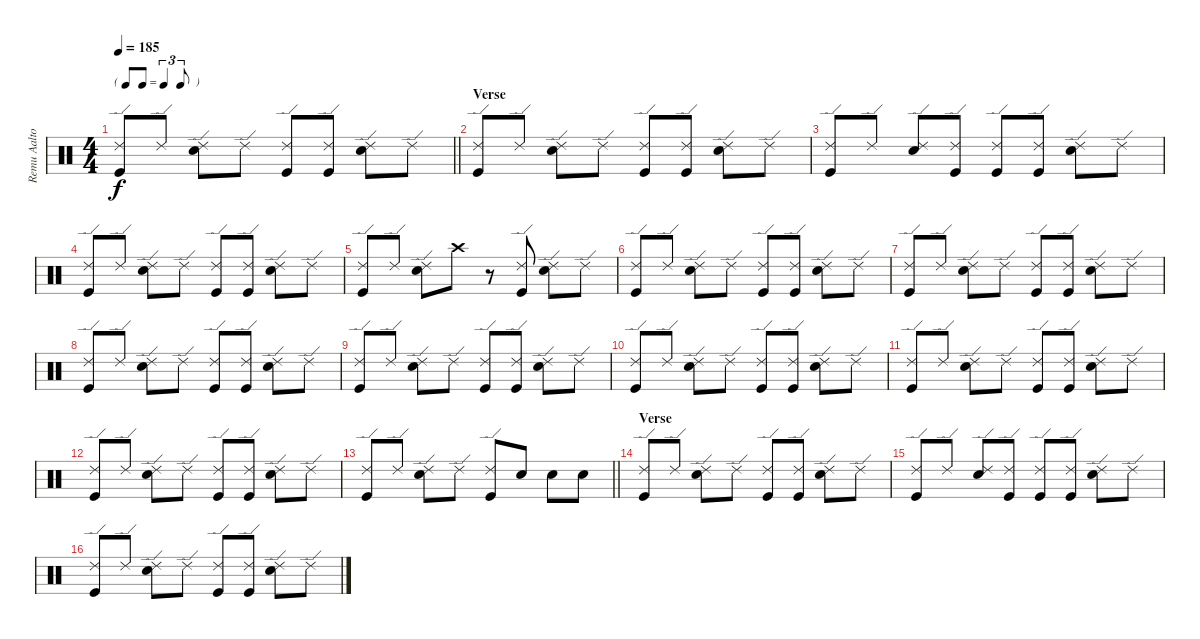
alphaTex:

\track ("Remu Aaltonen" "Remu Aalto") {instrument percussion}
\staff {score}
\articulation defaults
\ts (4 4)
\tf triplet8th
\tempo 185
\clef neutral
\barLineRight lightlight
\ks c
("Ride (edge) 2" "Kick (hit)").8{dy f} "Ride (edge) 2".8 ("Ride (edge) 2" "Snare (hit) 2").8 "Ride (edge) 2".8 ("Ride (edge) 2" "Kick (hit)").8 ("Ride (edge) 2" "Kick (hit)").8 ("Ride (edge) 2" "Snare (hit) 2").8 "Ride (edge) 2".8 |
\section ("" "Verse")
("Ride (edge) 2" "Kick (hit)").8 "Ride (edge) 2".8 ("Ride (edge) 2" "Snare (hit) 2").8 "Ride (edge) 2".8 ("Ride (edge) 2" "Kick (hit)").8 ("Ride (edge) 2" "Kick (hit)").8 ("Ride (edge) 2" "Snare (hit) 2").8 "Ride (edge) 2".8 |
("Ride (edge) 2" "Kick (hit)").8 "Ride (edge) 2".8 ("Ride (edge) 2" "Snare (hit) 2").8 ("Ride (edge) 2" "Kick (hit)").8 ("Ride (edge) 2" "Kick (hit)").8 ("Ride (edge) 2" "Kick (hit)").8 ("Ride (edge) 2" "Snare (hit) 2").8 "Ride (edge) 2".8 |
("Ride (edge) 2" "Kick (hit)").8 "Ride (edge) 2".8 ("Ride (edge) 2" "Snare (hit) 2").8 "Ride (edge) 2".8 ("Ride (edge) 2" "Kick (hit)").8 ("Ride (edge) 2" "Kick (hit)").8 ("Ride (edge) 2" "Snare (hit) 2").8 "Ride (edge) 2".8 |
("Ride (edge) 2" "Kick (hit)").8 "Ride (edge) 2".8 ("Ride (edge) 2" "Snare (hit) 2").8 "Crash high (hit)".8 r.8 ("Ride (edge) 2" "Kick (hit)").8 ("Ride (edge) 2" "Snare (hit) 2").8 "Ride (edge) 2".8 |
("Ride (edge) 2" "Kick (hit)").8 "Ride (edge) 2".8 ("Ride (edge) 2" "Snare (hit) 2").8 "Ride (edge) 2".8 ("Ride (edge) 2" "Kick (hit)").8 ("Ride (edge) 2" "Kick (hit)").8 ("Ride (edge) 2" "Snare (hit) 2").8 "Ride (edge) 2".8 |
("Ride (edge) 2" "Kick (hit)").8 "Ride (edge) 2".8 ("Ride (edge) 2" "Snare (hit) 2").8 "Ride (edge) 2".8 ("Ride (edge) 2" "Kick (hit)").8 ("Ride (edge) 2" "Kick (hit)").8 ("Ride (edge) 2" "Snare (hit) 2").8 "Ride (edge) 2".8 |
("Ride (edge) 2" "Kick (hit)").8 "Ride (edge) 2".8 ("Ride (edge) 2" "Snare (hit) 2").8 "Ride (edge) 2".8 ("Ride (edge) 2" "Kick (hit)").8 ("Ride (edge) 2" "Kick (hit)").8 ("Ride (edge) 2" "Snare (hit) 2").8 "Ride (edge) 2".8 |
("Ride (edge) 2" "Kick (hit)").8 "Ride (edge) 2".8 ("Ride (edge) 2" "Snare (hit) 2").8 "Ride (edge) 2".8 ("Ride (edge) 2" "Kick (hit)").8 ("Ride (edge) 2" "Kick (hit)").8 ("Ride (edge) 2" "Snare (hit) 2").8 "Ride (edge) 2".8 |
("Ride (edge) 2" "Kick (hit)").8 "Ride (edge) 2".8 ("Ride (edge) 2" "Snare (hit) 2").8 "Ride (edge) 2".8 ("Ride (edge) 2" "Kick (hit)").8 ("Ride (edge) 2" "Kick (hit)").8 ("Ride (edge) 2" "Snare (hit) 2").8 "Ride (edge) 2".8 |
("Ride (edge) 2" "Kick (hit)").8 "Ride (edge) 2".8 ("Ride (edge) 2" "Snare (hit) 2").8 "Ride (edge) 2".8 ("Ride (edge) 2" "Kick (hit)").8 ("Ride (edge) 2" "Kick (hit)").8 ("Ride (edge) 2" "Snare (hit) 2").8 "Ride (edge) 2".8 |
("Ride (edge) 2" "Kick (hit)").8 "Ride (edge) 2".8 ("Ride (edge) 2" "Snare (hit) 2").8 "Ride (edge) 2".8 ("Ride (edge) 2" "Kick (hit)").8 ("Ride (edge) 2" "Kick (hit)").8 ("Ride (edge) 2" "Snare (hit) 2").8 "Ride (edge) 2".8 |
\barLineRight lightlight
("Ride (edge) 2" "Kick (hit)").8 "Ride (edge) 2".8 ("Ride (edge) 2" "Snare (hit) 2").8 "Ride (edge) 2".8 ("Ride (edge) 2" "Kick (hit)").8 "Snare (hit) 2".8 "Snare (hit) 2".8 "Snare (hit) 2".8 |
\section ("" "Verse")
("Ride (edge) 2" "Kick (hit)").8 "Ride (edge) 2".8 ("Ride (edge) 2" "Snare (hit) 2").8 "Ride (edge) 2".8 ("Ride (edge) 2" "Kick (hit)").8 ("Ride (edge) 2" "Kick (hit)").8 ("Ride (edge) 2" "Snare (hit) 2").8 "Ride (edge) 2".8 |
("Ride (edge) 2" "Kick (hit)").8 "Ride (edge) 2".8 ("Ride (edge) 2" "Snare (hit) 2").8 ("Ride (edge) 2" "Kick (hit)").8 ("Ride (edge) 2" "Kick (hit)").8 ("Ride (edge) 2" "Kick (hit)").8 ("Ride (edge) 2" "Snare (hit) 2").8 "Ride (edge) 2".8 |
("Ride (edge) 2" "Kick (hit)").8 "Ride (edge) 2".8 ("Ride (edge) 2" "Snare (hit) 2").8 "Ride (edge) 2".8 ("Ride (edge) 2" "Kick (hit)").8 ("Ride (edge) 2" "Kick (hit)").8 ("Ride (edge) 2" "Snare (hit) 2").8 "Ride (edge) 2".8
